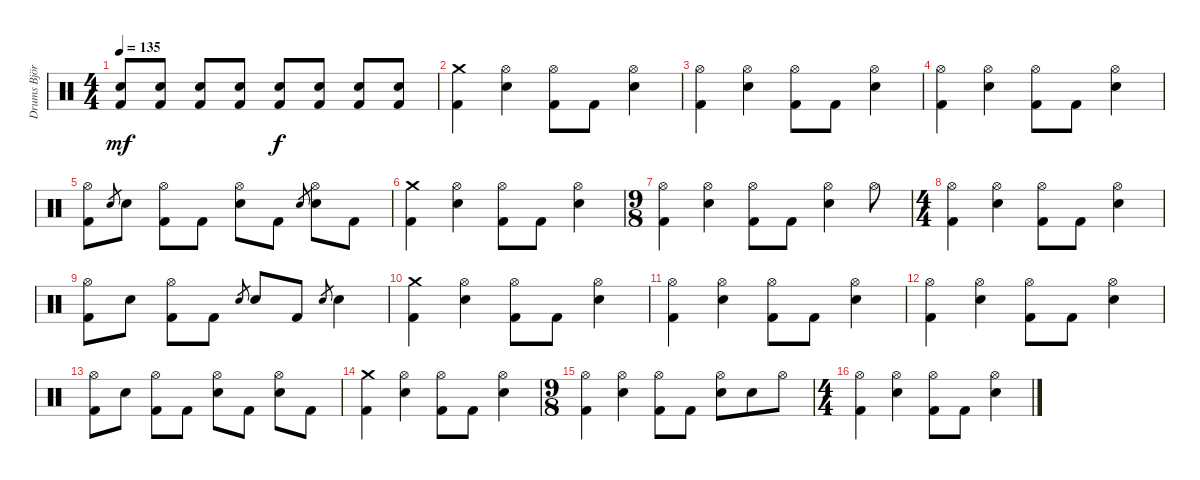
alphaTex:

\track ("Drums Björn Fryklund" "Drums Björ") {instrument percussion}
\staff {score}
\articulation defaults
\ts (4 4)
\tempo 135
\clef neutral
\ks c
("Electric Snare (hit)" "Kick (hit) 2").8{dy mf} ("Electric Snare (hit)" "Kick (hit) 2").8 ("Electric Snare (hit)" "Kick (hit) 2").8 ("Electric Snare (hit)" "Kick (hit) 2").8 ("Electric Snare (hit)" "Kick (hit) 2").8{dy f} ("Electric Snare (hit)" "Kick (hit) 2").8 ("Electric Snare (hit)" "Kick (hit) 2").8 ("Electric Snare (hit)" "Kick (hit) 2").8 |
("Crash medium (hit)" "Kick (hit) 2").4 ("Hi-Hat (open)" "Electric Snare (hit)").4 ("Hi-Hat (open)" "Kick (hit) 2").8 "Kick (hit) 2".8 ("Hi-Hat (open)" "Electric Snare (hit)").4 |
("Hi-Hat (open)" "Kick (hit) 2").4 ("Hi-Hat (open)" "Electric Snare (hit)").4 ("Hi-Hat (open)" "Kick (hit) 2").8 "Kick (hit) 2".8 ("Hi-Hat (open)" "Electric Snare (hit)").4 |
("Hi-Hat (open)" "Kick (hit) 2").4 ("Hi-Hat (open)" "Electric Snare (hit)").4 ("Hi-Hat (open)" "Kick (hit) 2").8 "Kick (hit) 2".8 ("Hi-Hat (open)" "Electric Snare (hit)").4 |
("Hi-Hat (open)" "Kick (hit) 2").8 "Electric Snare (hit)".8{gr} "Electric Snare (hit)".8 ("Hi-Hat (open)" "Kick (hit) 2").8 "Kick (hit) 2".8 ("Hi-Hat (open)" "Electric Snare (hit)").8 "Kick (hit) 2".8 "Electric Snare (hit)".8{gr} ("Hi-Hat (open)" "Electric Snare (hit)").8 "Kick (hit) 2".8 |
("Crash medium (hit)" "Kick (hit) 2").4 ("Hi-Hat (open)" "Electric Snare (hit)").4 ("Hi-Hat (open)" "Kick (hit) 2").8 "Kick (hit) 2".8 ("Hi-Hat (open)" "Electric Snare (hit)").4 |
\ts (9 8)
("Hi-Hat (open)" "Kick (hit) 2").4 ("Hi-Hat (open)" "Electric Snare (hit)").4 ("Hi-Hat (open)" "Kick (hit) 2").8 "Kick (hit) 2".8 ("Hi-Hat (open)" "Electric Snare (hit)").4 "Hi-Hat (open)".8 |
\ts (4 4)
("Hi-Hat (open)" "Kick (hit) 2").4 ("Hi-Hat (open)" "Electric Snare (hit)").4 ("Hi-Hat (open)" "Kick (hit) 2").8 "Kick (hit) 2".8 ("Hi-Hat (open)" "Electric Snare (hit)").4 |
("Hi-Hat (open)" "Kick (hit) 2").8 "Electric Snare (hit)".8 ("Hi-Hat (open)" "Kick (hit) 2").8 "Kick (hit) 2".8 "Electric Snare (hit)".8{gr} "Electric Snare (hit)".8 "Kick (hit) 2".8 "Electric Snare (hit)".8{gr} "Electric Snare (hit)".4 |
("Crash medium (hit)" "Kick (hit) 2").4 ("Hi-Hat (open)" "Electric Snare (hit)").4 ("Hi-Hat (open)" "Kick (hit) 2").8 "Kick (hit) 2".8 ("Hi-Hat (open)" "Electric Snare (hit)").4 |
("Hi-Hat (open)" "Kick (hit) 2").4 ("Hi-Hat (open)" "Electric Snare (hit)").4 ("Hi-Hat (open)" "Kick (hit) 2").8 "Kick (hit) 2".8 ("Hi-Hat (open)" "Electric Snare (hit)").4 |
("Hi-Hat (open)" "Kick (hit) 2").4 ("Hi-Hat (open)" "Electric Snare (hit)").4 ("Hi-Hat (open)" "Kick (hit) 2").8 "Kick (hit) 2".8 ("Hi-Hat (open)" "Electric Snare (hit)").4 |
("Hi-Hat (open)" "Kick (hit) 2").8 "Electric Snare (hit)".8 ("Hi-Hat (open)" "Kick (hit) 2").8 "Kick (hit) 2".8 ("Hi-Hat (open)" "Electric Snare (hit)").8 "Kick (hit) 2".8 ("Hi-Hat (open)" "Electric Snare (hit)").8 "Kick (hit) 2".8 |
("Crash medium (hit)" "Kick (hit) 2").4 ("Hi-Hat (open)" "Electric Snare (hit)").4 ("Hi-Hat (open)" "Kick (hit) 2").8 "Kick (hit) 2".8 ("Hi-Hat (open)" "Electric Snare (hit)").4 |
\ts (9 8)
("Hi-Hat (open)" "Kick (hit) 2").4 ("Hi-Hat (open)" "Electric Snare (hit)").4 ("Hi-Hat (open)" "Kick (hit) 2").8 "Kick (hit) 2".8 ("Hi-Hat (open)" "Electric Snare (hit)").8 "Electric Snare (hit)".8 "Hi-Hat (open)".8 |
\ts (4 4)
("Hi-Hat (open)" "Kick (hit) 2").4 ("Hi-Hat (open)" "Electric Snare (hit)").4 ("Hi-Hat (open)" "Kick (hit) 2").8 "Kick (hit) 2".8 ("Hi-Hat (open)" "Electric Snare (hit)").4
